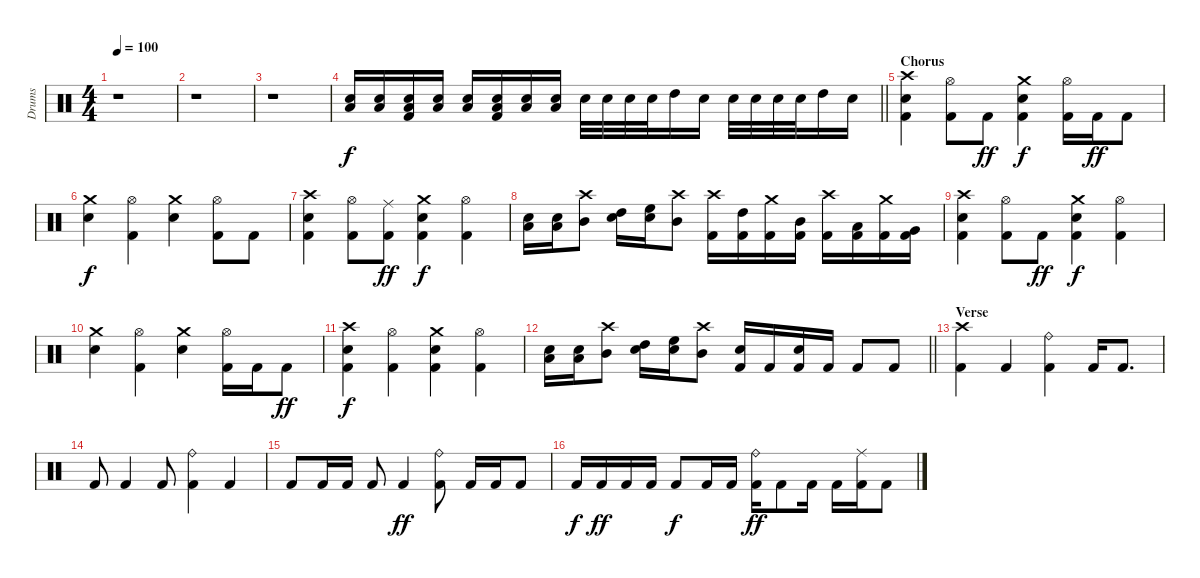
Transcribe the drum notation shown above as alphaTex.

\track ("Drums" "Drums") {instrument percussion}
\staff {score}
\articulation defaults
\ts (4 4)
\tempo 100
\clef neutral
\ks c
r.1{dy f} |
r.1 |
r.1 |
\barLineRight lightlight
("Snare (hit) 2" "Low Tom (hit)").16 ("Snare (hit) 2" "Low Tom (hit)").16 ("Snare (hit) 2" "Low Tom (hit)" "Kick (hit) 2").16 ("Snare (hit) 2" "Low Tom (hit)").16 ("Snare (hit) 2" "Low Tom (hit)").16 ("Snare (hit) 2" "Low Tom (hit)" "Kick (hit) 2").16 ("Snare (hit) 2" "Low Tom (hit)").16 ("Snare (hit) 2" "Low Tom (hit)").16 "Snare (hit) 2".32 "Snare (hit) 2".32 "Snare (hit) 2".32 "Snare (hit) 2".32 "High Tom (hit)".16 "Snare (hit) 2".16 "Snare (hit) 2".32 "Snare (hit) 2".32 "Snare (hit) 2".32 "Snare (hit) 2".32 "High Tom (hit)".16 "Snare (hit) 2".16 |
\section ("" "Chorus")
("Crash high (hit)" "Snare (hit) 2" "Kick (hit) 2").4 ("Hi-Hat (open)" "Kick (hit) 2").8 "Kick (hit) 2".8{dy ff} ("Crash medium (hit)" "Snare (hit) 2" "Kick (hit) 2").4{dy f} ("Hi-Hat (open)" "Kick (hit) 2").16 "Kick (hit) 2".16{dy ff} "Kick (hit) 2".8 |
("Crash medium (hit)" "Snare (hit) 2").4{dy f} ("Hi-Hat (open)" "Kick (hit) 2").4 ("Crash medium (hit)" "Snare (hit) 2").4 ("Hi-Hat (open)" "Kick (hit) 2").8 "Kick (hit) 2".8 |
("Crash high (hit)" "Snare (hit) 2" "Kick (hit) 2").4 ("Hi-Hat (open)" "Kick (hit) 2").8 ("Ride (middle)" "Kick (hit) 2").8{dy ff} ("Crash medium (hit)" "Snare (hit) 2" "Kick (hit) 2").4{dy f} ("Hi-Hat (open)" "Kick (hit) 2").4 |
("Snare (hit) 2" "Low Tom (hit)").16 ("Snare (hit) 2" "Low Tom (hit)").16 ("Crash high (hit)" "Mid Tom (hit)").8 ("Snare (hit) 2" "High Tom (hit)").16 ("Snare (hit) 2" "High Floor Tom (hit)").16 ("Crash high (hit)" "Mid Tom (hit)").8 ("Crash high (hit)" "Kick (hit) 2").16 ("High Tom (hit)" "Kick (hit) 2").16 ("Crash medium (hit)" "Kick (hit) 2").16 ("Mid Tom (hit)" "Kick (hit) 2").16 ("Crash high (hit)" "Kick (hit) 2").16 ("Low Tom (hit)" "Kick (hit) 2").16 ("Crash medium (hit)" "Kick (hit) 2").16 ("Very Low Tom (hit)" "Kick (hit) 2").16 |
("Crash high (hit)" "Snare (hit) 2" "Kick (hit) 2").4 ("Hi-Hat (open)" "Kick (hit) 2").8 "Kick (hit) 2".8{dy ff} ("Crash medium (hit)" "Snare (hit) 2" "Kick (hit) 2").4{dy f} ("Hi-Hat (open)" "Kick (hit) 2").4 |
("Crash medium (hit)" "Snare (hit) 2").4 ("Hi-Hat (open)" "Kick (hit) 2").4 ("Crash medium (hit)" "Snare (hit) 2").4 ("Hi-Hat (open)" "Kick (hit) 2").16 "Kick (hit) 2".16 "Kick (hit) 2".8{dy ff} |
("Crash high (hit)" "Snare (hit) 2" "Kick (hit) 2").4{dy f} ("Hi-Hat (open)" "Kick (hit) 2").4 ("Crash medium (hit)" "Snare (hit) 2" "Kick (hit) 2").4 ("Hi-Hat (open)" "Kick (hit) 2").4 |
\barLineRight lightlight
("Snare (hit) 2" "Low Tom (hit)").16 ("Snare (hit) 2" "Low Tom (hit)").16 ("Crash high (hit)" "Mid Tom (hit)").8 ("Snare (hit) 2" "High Tom (hit)").16 ("Snare (hit) 2" "High Floor Tom (hit)").16 ("Crash high (hit)" "Mid Tom (hit)").8 ("Snare (hit) 2" "Kick (hit) 2").16 "Kick (hit) 2".16 ("Snare (hit) 2" "Kick (hit) 2").16 "Kick (hit) 2".16 "Kick (hit) 2".8 "Kick (hit) 2".8 |
\section ("" "Verse")
("Crash high (hit)" "Kick (hit) 2").4 "Kick (hit) 2".4 ("Ride (bell)" "Kick (hit) 2").4 "Kick (hit) 2".16 "Kick (hit) 2".8{d} |
"Kick (hit) 2".8 "Kick (hit) 2".4 "Kick (hit) 2".8 ("Ride (bell)" "Kick (hit) 2").4 "Kick (hit) 2".4 |
"Kick (hit) 2".8 "Kick (hit) 2".16 "Kick (hit) 2".16 "Kick (hit) 2".8 "Kick (hit) 2".4{dy ff} ("Ride (bell)" "Kick (hit) 2").8 "Kick (hit) 2".16 "Kick (hit) 2".16 "Kick (hit) 2".8 |
"Kick (hit) 2".16{dy f} "Kick (hit) 2".16{dy ff} "Kick (hit) 2".16 "Kick (hit) 2".16 "Kick (hit) 2".8{dy f} "Kick (hit) 2".16 "Kick (hit) 2".16 ("Ride (bell)" "Kick (hit) 2").16{dy ff} "Kick (hit) 2".8 "Kick (hit) 2".16 "Kick (hit) 2".16 ("Ride (middle)" "Kick (hit) 2").16 "Kick (hit) 2".8
